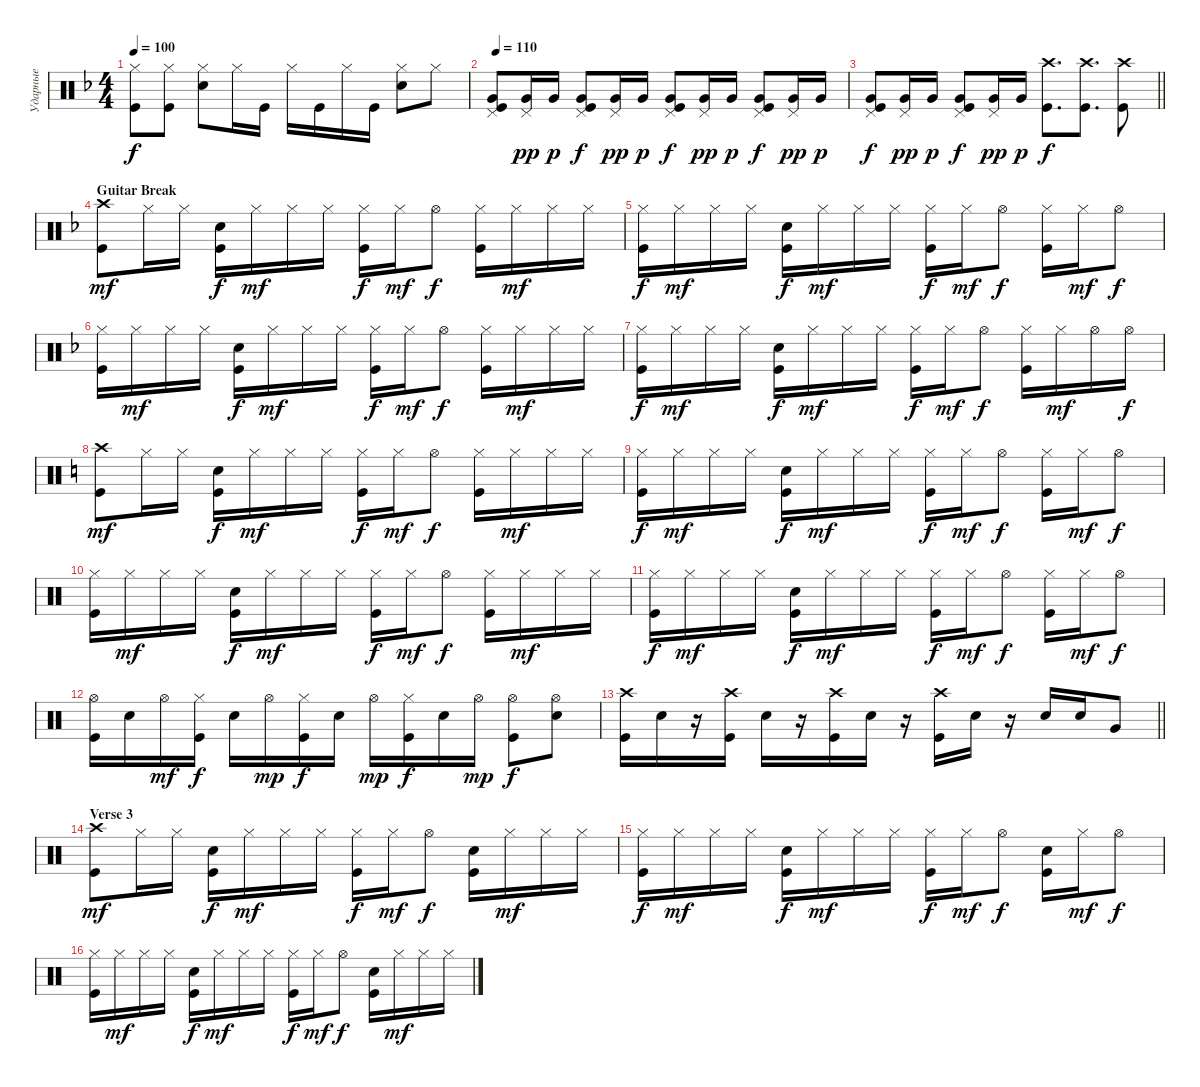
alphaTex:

\track ("Ударные" "Ударные") {instrument percussion}
\staff {score}
\articulation defaults
\ts (4 4)
\tempo 100
\clef neutral
\ks dminor
("Kick (hit)" "Hi-Hat (closed)").8{dy f} ("Kick (hit)" "Hi-Hat (closed)").8 ("Snare (hit) 2" "Hi-Hat (closed)").8 "Hi-Hat (closed)".16 "Kick (hit)".16 "Hi-Hat (closed)".16 "Kick (hit)".16 "Hi-Hat (closed)".16 "Kick (hit)".16 ("Snare (hit) 2" "Hi-Hat (closed)").8 "Hi-Hat (closed)".8 |
\tempo 110
("Kick (hit)" "Very Low Tom (hit)" "Pedal Hi-Hat (hit)").8{bd 60} ("Pedal Hi-Hat (hit)" "Very Low Tom (hit)").16{dy pp} "Very Low Tom (hit)".16{dy p} ("Kick (hit)" "Very Low Tom (hit)" "Pedal Hi-Hat (hit)").8{bd 60 dy f} ("Pedal Hi-Hat (hit)" "Very Low Tom (hit)").16{dy pp} "Very Low Tom (hit)".16{dy p} ("Kick (hit)" "Very Low Tom (hit)" "Pedal Hi-Hat (hit)").8{bd 60 dy f} ("Pedal Hi-Hat (hit)" "Very Low Tom (hit)").16{dy pp} "Very Low Tom (hit)".16{dy p} ("Kick (hit)" "Very Low Tom (hit)" "Pedal Hi-Hat (hit)").8{bd 60 dy f} ("Pedal Hi-Hat (hit)" "Very Low Tom (hit)").16{dy pp} "Very Low Tom (hit)".16{dy p} |
\barLineRight lightlight
("Kick (hit)" "Very Low Tom (hit)" "Pedal Hi-Hat (hit)").8{bd 60 dy f} ("Pedal Hi-Hat (hit)" "Very Low Tom (hit)").16{dy pp} "Very Low Tom (hit)".16{dy p} ("Kick (hit)" "Very Low Tom (hit)" "Pedal Hi-Hat (hit)").8{bd 60 dy f} ("Pedal Hi-Hat (hit)" "Very Low Tom (hit)").16{dy pp} "Very Low Tom (hit)".16{dy p} ("Kick (hit)" "Crash high (hit)").8{d dy f} ("Kick (hit)" "Crash high (hit)").8{d} ("Kick (hit)" "Crash high (hit)").8 |
\section ("" "Guitar Break")
("Crash high (hit)" "Kick (hit)").8{dy mf} "Hi-Hat (closed)".16 "Hi-Hat (closed)".16 ("Snare (hit) 2" "Kick (hit)").16{dy f} "Hi-Hat (closed)".16{dy mf} "Hi-Hat (closed)".16 "Hi-Hat (closed)".16 ("Hi-Hat (closed)" "Kick (hit)").16{dy f} "Hi-Hat (closed)".16{dy mf} "Hi-Hat (open)".8{dy f} ("Hi-Hat (closed)" "Kick (hit)").16 "Hi-Hat (closed)".16{dy mf} "Hi-Hat (closed)".16 "Hi-Hat (closed)".16 |
("Hi-Hat (closed)" "Kick (hit)").16{dy f} "Hi-Hat (closed)".16{dy mf} "Hi-Hat (closed)".16 "Hi-Hat (closed)".16 ("Snare (hit) 2" "Kick (hit)").16{dy f} "Hi-Hat (closed)".16{dy mf} "Hi-Hat (closed)".16 "Hi-Hat (closed)".16 ("Hi-Hat (closed)" "Kick (hit)").16{dy f} "Hi-Hat (closed)".16{dy mf} "Hi-Hat (open)".8{dy f} ("Hi-Hat (closed)" "Kick (hit)").16 "Hi-Hat (closed)".16{dy mf} "Hi-Hat (open)".8{dy f} |
("Hi-Hat (closed)" "Kick (hit)").16 "Hi-Hat (closed)".16{dy mf} "Hi-Hat (closed)".16 "Hi-Hat (closed)".16 ("Snare (hit) 2" "Kick (hit)").16{dy f} "Hi-Hat (closed)".16{dy mf} "Hi-Hat (closed)".16 "Hi-Hat (closed)".16 ("Hi-Hat (closed)" "Kick (hit)").16{dy f} "Hi-Hat (closed)".16{dy mf} "Hi-Hat (open)".8{dy f} ("Hi-Hat (closed)" "Kick (hit)").16 "Hi-Hat (closed)".16{dy mf} "Hi-Hat (closed)".16 "Hi-Hat (closed)".16 |
("Hi-Hat (closed)" "Kick (hit)").16{dy f} "Hi-Hat (closed)".16{dy mf} "Hi-Hat (closed)".16 "Hi-Hat (closed)".16 ("Snare (hit) 2" "Kick (hit)").16{dy f} "Hi-Hat (closed)".16{dy mf} "Hi-Hat (closed)".16 "Hi-Hat (closed)".16 ("Hi-Hat (closed)" "Kick (hit)").16{dy f} "Hi-Hat (closed)".16{dy mf} "Hi-Hat (open)".8{dy f} ("Hi-Hat (closed)" "Kick (hit)").16 "Hi-Hat (closed)".16{dy mf} "Hi-Hat (open)".16 "Hi-Hat (open)".16{dy f} |
\ks aminor
("Crash high (hit)" "Kick (hit)").8{dy mf} "Hi-Hat (closed)".16 "Hi-Hat (closed)".16 ("Snare (hit) 2" "Kick (hit)").16{dy f} "Hi-Hat (closed)".16{dy mf} "Hi-Hat (closed)".16 "Hi-Hat (closed)".16 ("Hi-Hat (closed)" "Kick (hit)").16{dy f} "Hi-Hat (closed)".16{dy mf} "Hi-Hat (open)".8{dy f} ("Hi-Hat (closed)" "Kick (hit)").16 "Hi-Hat (closed)".16{dy mf} "Hi-Hat (closed)".16 "Hi-Hat (closed)".16 |
("Hi-Hat (closed)" "Kick (hit)").16{dy f} "Hi-Hat (closed)".16{dy mf} "Hi-Hat (closed)".16 "Hi-Hat (closed)".16 ("Snare (hit) 2" "Kick (hit)").16{dy f} "Hi-Hat (closed)".16{dy mf} "Hi-Hat (closed)".16 "Hi-Hat (closed)".16 ("Hi-Hat (closed)" "Kick (hit)").16{dy f} "Hi-Hat (closed)".16{dy mf} "Hi-Hat (open)".8{dy f} ("Hi-Hat (closed)" "Kick (hit)").16 "Hi-Hat (closed)".16{dy mf} "Hi-Hat (open)".8{dy f} |
("Hi-Hat (closed)" "Kick (hit)").16 "Hi-Hat (closed)".16{dy mf} "Hi-Hat (closed)".16 "Hi-Hat (closed)".16 ("Snare (hit) 2" "Kick (hit)").16{dy f} "Hi-Hat (closed)".16{dy mf} "Hi-Hat (closed)".16 "Hi-Hat (closed)".16 ("Hi-Hat (closed)" "Kick (hit)").16{dy f} "Hi-Hat (closed)".16{dy mf} "Hi-Hat (open)".8{dy f} ("Hi-Hat (closed)" "Kick (hit)").16 "Hi-Hat (closed)".16{dy mf} "Hi-Hat (closed)".16 "Hi-Hat (closed)".16 |
("Hi-Hat (closed)" "Kick (hit)").16{dy f} "Hi-Hat (closed)".16{dy mf} "Hi-Hat (closed)".16 "Hi-Hat (closed)".16 ("Snare (hit) 2" "Kick (hit)").16{dy f} "Hi-Hat (closed)".16{dy mf} "Hi-Hat (closed)".16 "Hi-Hat (closed)".16 ("Hi-Hat (closed)" "Kick (hit)").16{dy f} "Hi-Hat (closed)".16{dy mf} "Hi-Hat (open)".8{dy f} ("Hi-Hat (closed)" "Kick (hit)").16 "Hi-Hat (closed)".16{dy mf} "Hi-Hat (open)".8{dy f} |
("Kick (hit)" "Hi-Hat (open)").16 "Snare (hit) 2".16 "Hi-Hat (open)".16{dy mf} ("Kick (hit)" "Hi-Hat (closed)").16{dy f} "Snare (hit) 2".16 "Hi-Hat (open)".16{dy mp} ("Kick (hit)" "Hi-Hat (closed)").16{dy f} "Snare (hit) 2".16 "Hi-Hat (open)".16{dy mp} ("Kick (hit)" "Hi-Hat (closed)").16{dy f} "Snare (hit) 2".16 "Hi-Hat (open)".16{dy mp} ("Kick (hit)" "Hi-Hat (open)").8{dy f} ("Snare (hit) 2" "Hi-Hat (open)").8 |
\barLineRight lightlight
("Kick (hit)" "Crash high (hit)").16 "Snare (hit) 2".16 r.16 ("Kick (hit)" "Crash high (hit)").16 "Snare (hit) 2".16 r.16 ("Kick (hit)" "Crash high (hit)").16 "Snare (hit) 2".16 r.16 ("Kick (hit)" "Crash high (hit)").16 "Snare (hit) 2".16 r.16 "Snare (hit) 2".16 "Snare (hit) 2".16 "Very Low Tom (hit)".8 |
\section ("" "Verse 3")
\ks c
("Crash high (hit)" "Kick (hit)").8{dy mf} "Hi-Hat (closed)".16 "Hi-Hat (closed)".16 ("Snare (hit) 2" "Kick (hit)").16{dy f} "Hi-Hat (closed)".16{dy mf} "Hi-Hat (closed)".16 "Hi-Hat (closed)".16 ("Hi-Hat (closed)" "Kick (hit)").16{dy f} "Hi-Hat (closed)".16{dy mf} "Hi-Hat (open)".8{dy f} ("Kick (hit)" "Snare (hit) 2").16 "Hi-Hat (closed)".16{dy mf} "Hi-Hat (closed)".16 "Hi-Hat (closed)".16 |
("Hi-Hat (closed)" "Kick (hit)").16{dy f} "Hi-Hat (closed)".16{dy mf} "Hi-Hat (closed)".16 "Hi-Hat (closed)".16 ("Snare (hit) 2" "Kick (hit)").16{dy f} "Hi-Hat (closed)".16{dy mf} "Hi-Hat (closed)".16 "Hi-Hat (closed)".16 ("Hi-Hat (closed)" "Kick (hit)").16{dy f} "Hi-Hat (closed)".16{dy mf} "Hi-Hat (open)".8{dy f} ("Kick (hit)" "Snare (hit) 2").16 "Hi-Hat (closed)".16{dy mf} "Hi-Hat (open)".8{dy f} |
("Hi-Hat (closed)" "Kick (hit)").16 "Hi-Hat (closed)".16{dy mf} "Hi-Hat (closed)".16 "Hi-Hat (closed)".16 ("Snare (hit) 2" "Kick (hit)").16{dy f} "Hi-Hat (closed)".16{dy mf} "Hi-Hat (closed)".16 "Hi-Hat (closed)".16 ("Hi-Hat (closed)" "Kick (hit)").16{dy f} "Hi-Hat (closed)".16{dy mf} "Hi-Hat (open)".8{dy f} ("Kick (hit)" "Snare (hit) 2").16 "Hi-Hat (closed)".16{dy mf} "Hi-Hat (closed)".16 "Hi-Hat (closed)".16
